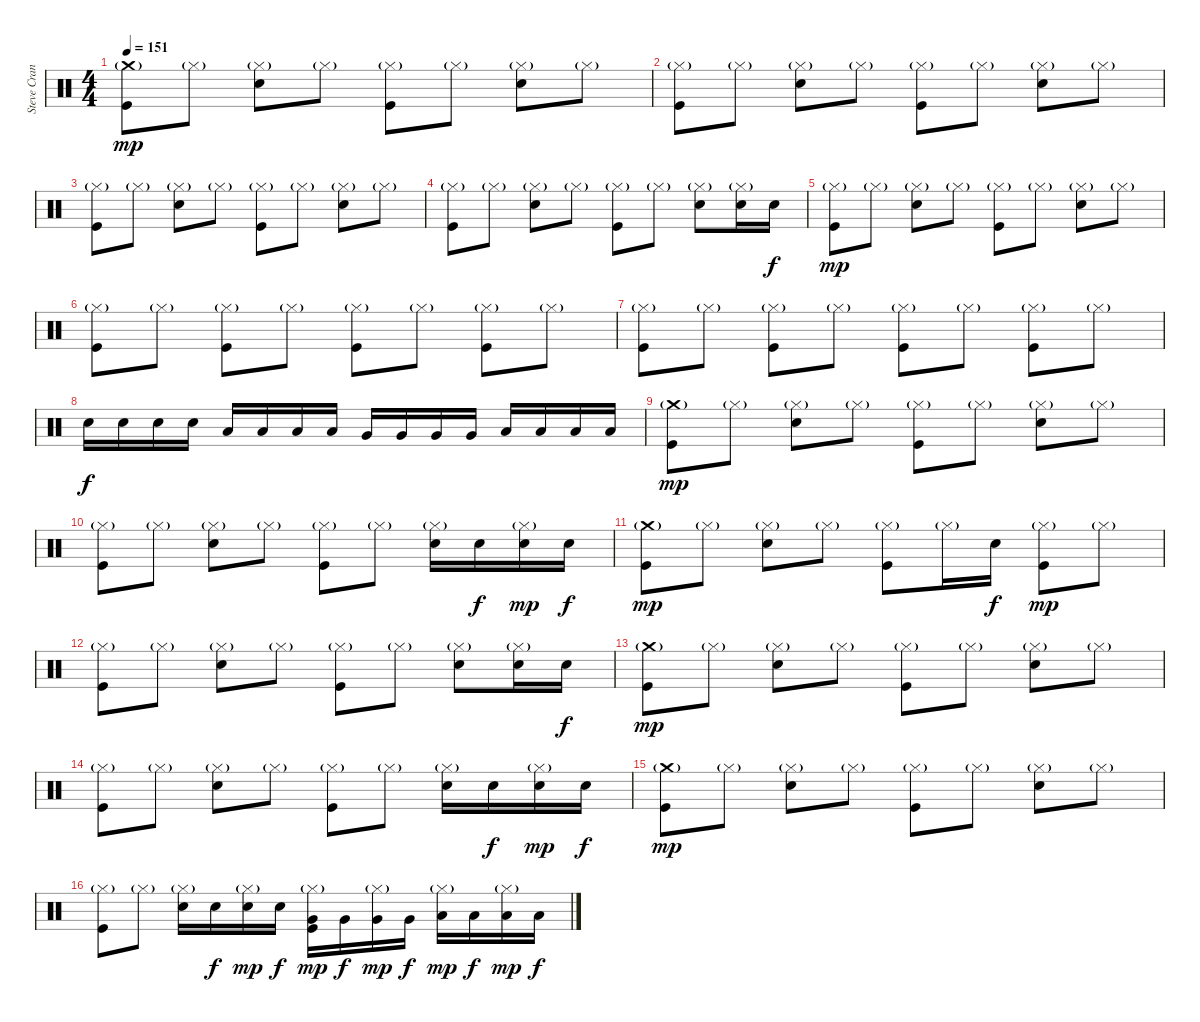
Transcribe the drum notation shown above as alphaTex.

\track ("Steve Crane" "Steve Cran") {instrument percussion}
\staff {score}
\articulation defaults
\ts (4 4)
\tempo 151
\clef neutral
\ks c
("Crash medium (hit)"{g} "Kick (hit)").8{dy mp} "Hi-Hat (closed)"{g}.8 ("Hi-Hat (closed)"{g} "Snare (hit) 2").8 "Hi-Hat (closed)"{g}.8 ("Hi-Hat (closed)"{g} "Kick (hit)").8 "Hi-Hat (closed)"{g}.8 ("Hi-Hat (closed)"{g} "Snare (hit) 2").8 "Hi-Hat (closed)"{g}.8 |
("Hi-Hat (closed)"{g} "Kick (hit)").8 "Hi-Hat (closed)"{g}.8 ("Hi-Hat (closed)"{g} "Snare (hit) 2").8 "Hi-Hat (closed)"{g}.8 ("Hi-Hat (closed)"{g} "Kick (hit)").8 "Hi-Hat (closed)"{g}.8 ("Hi-Hat (closed)"{g} "Snare (hit) 2").8 "Hi-Hat (closed)"{g}.8 |
("Hi-Hat (closed)"{g} "Kick (hit)").8 "Hi-Hat (closed)"{g}.8 ("Hi-Hat (closed)"{g} "Snare (hit) 2").8 "Hi-Hat (closed)"{g}.8 ("Hi-Hat (closed)"{g} "Kick (hit)").8 "Hi-Hat (closed)"{g}.8 ("Hi-Hat (closed)"{g} "Snare (hit) 2").8 "Hi-Hat (closed)"{g}.8 |
("Hi-Hat (closed)"{g} "Kick (hit)").8 "Hi-Hat (closed)"{g}.8 ("Hi-Hat (closed)"{g} "Snare (hit) 2").8 "Hi-Hat (closed)"{g}.8 ("Hi-Hat (closed)"{g} "Kick (hit)").8 "Hi-Hat (closed)"{g}.8 ("Hi-Hat (closed)"{g} "Snare (hit) 2").8 ("Hi-Hat (closed)"{g} "Snare (hit) 2").16 "Snare (hit) 2".16{dy f} |
("Hi-Hat (closed)"{g} "Kick (hit)").8{dy mp} "Hi-Hat (closed)"{g}.8 ("Hi-Hat (closed)"{g} "Snare (hit) 2").8 "Hi-Hat (closed)"{g}.8 ("Hi-Hat (closed)"{g} "Kick (hit)").8 "Hi-Hat (closed)"{g}.8 ("Hi-Hat (closed)"{g} "Snare (hit) 2").8 "Hi-Hat (closed)"{g}.8 |
("Hi-Hat (closed)"{g} "Kick (hit)").8 "Hi-Hat (closed)"{g}.8 ("Hi-Hat (closed)"{g} "Kick (hit)").8 "Hi-Hat (closed)"{g}.8 ("Hi-Hat (closed)"{g} "Kick (hit)").8 "Hi-Hat (closed)"{g}.8 ("Hi-Hat (closed)"{g} "Kick (hit)").8 "Hi-Hat (closed)"{g}.8 |
("Hi-Hat (closed)"{g} "Kick (hit)").8 "Hi-Hat (closed)"{g}.8 ("Hi-Hat (closed)"{g} "Kick (hit)").8 "Hi-Hat (closed)"{g}.8 ("Hi-Hat (closed)"{g} "Kick (hit)").8 "Hi-Hat (closed)"{g}.8 ("Hi-Hat (closed)"{g} "Kick (hit)").8 "Hi-Hat (closed)"{g}.8 |
"Snare (hit) 2".16{dy f} "Snare (hit) 2".16 "Snare (hit) 2".16 "Snare (hit) 2".16 "Low Tom (hit)".16 "Low Tom (hit)".16 "Low Tom (hit)".16 "Low Tom (hit)".16 "Very Low Tom (hit)".16 "Very Low Tom (hit)".16 "Very Low Tom (hit)".16 "Very Low Tom (hit)".16 "Low Floor Tom (hit)".16 "Low Floor Tom (hit)".16 "Low Floor Tom (hit)".16 "Low Floor Tom (hit)".16 |
("Crash medium (hit)"{g} "Kick (hit)").8{dy mp} "Hi-Hat (closed)"{g}.8 ("Hi-Hat (closed)"{g} "Snare (hit) 2").8 "Hi-Hat (closed)"{g}.8 ("Hi-Hat (closed)"{g} "Kick (hit)").8 "Hi-Hat (closed)"{g}.8 ("Hi-Hat (closed)"{g} "Snare (hit) 2").8 "Hi-Hat (closed)"{g}.8 |
("Hi-Hat (closed)"{g} "Kick (hit)").8 "Hi-Hat (closed)"{g}.8 ("Hi-Hat (closed)"{g} "Snare (hit) 2").8 "Hi-Hat (closed)"{g}.8 ("Hi-Hat (closed)"{g} "Kick (hit)").8 "Hi-Hat (closed)"{g}.8 ("Hi-Hat (closed)"{g} "Snare (hit) 2").16 "Snare (hit) 2".16{dy f} ("Hi-Hat (closed)"{g} "Snare (hit) 2").16{dy mp} "Snare (hit) 2".16{dy f} |
("Crash medium (hit)"{g} "Kick (hit)").8{dy mp} "Hi-Hat (closed)"{g}.8 ("Hi-Hat (closed)"{g} "Snare (hit) 2").8 "Hi-Hat (closed)"{g}.8 ("Hi-Hat (closed)"{g} "Kick (hit)").8 "Hi-Hat (closed)"{g}.16 "Snare (hit) 2".16{dy f} ("Hi-Hat (closed)"{g} "Kick (hit)").8{dy mp} "Hi-Hat (closed)"{g}.8 |
("Hi-Hat (closed)"{g} "Kick (hit)").8 "Hi-Hat (closed)"{g}.8 ("Hi-Hat (closed)"{g} "Snare (hit) 2").8 "Hi-Hat (closed)"{g}.8 ("Hi-Hat (closed)"{g} "Kick (hit)").8 "Hi-Hat (closed)"{g}.8 ("Hi-Hat (closed)"{g} "Snare (hit) 2").8 ("Hi-Hat (closed)"{g} "Snare (hit) 2").16 "Snare (hit) 2".16{dy f} |
("Crash medium (hit)"{g} "Kick (hit)").8{dy mp} "Hi-Hat (closed)"{g}.8 ("Hi-Hat (closed)"{g} "Snare (hit) 2").8 "Hi-Hat (closed)"{g}.8 ("Hi-Hat (closed)"{g} "Kick (hit)").8 "Hi-Hat (closed)"{g}.8 ("Hi-Hat (closed)"{g} "Snare (hit) 2").8 "Hi-Hat (closed)"{g}.8 |
("Hi-Hat (closed)"{g} "Kick (hit)").8 "Hi-Hat (closed)"{g}.8 ("Hi-Hat (closed)"{g} "Snare (hit) 2").8 "Hi-Hat (closed)"{g}.8 ("Hi-Hat (closed)"{g} "Kick (hit)").8 "Hi-Hat (closed)"{g}.8 ("Hi-Hat (closed)"{g} "Snare (hit) 2").16 "Snare (hit) 2".16{dy f} ("Hi-Hat (closed)"{g} "Snare (hit) 2").16{dy mp} "Snare (hit) 2".16{dy f} |
("Crash medium (hit)"{g} "Kick (hit)").8{dy mp} "Hi-Hat (closed)"{g}.8 ("Hi-Hat (closed)"{g} "Snare (hit) 2").8 "Hi-Hat (closed)"{g}.8 ("Hi-Hat (closed)"{g} "Kick (hit)").8 "Hi-Hat (closed)"{g}.8 ("Hi-Hat (closed)"{g} "Snare (hit) 2").8 "Hi-Hat (closed)"{g}.8 |
("Hi-Hat (closed)"{g} "Kick (hit)").8 "Hi-Hat (closed)"{g}.8 ("Hi-Hat (closed)"{g} "Snare (hit) 2").16 "Snare (hit) 2".16{dy f} ("Hi-Hat (closed)"{g} "Snare (hit) 2").16{dy mp} "Snare (hit) 2".16{dy f} ("Hi-Hat (closed)"{g} "Very Low Tom (hit)" "Kick (hit)").16{dy mp} "Very Low Tom (hit)".16{dy f} ("Hi-Hat (closed)"{g} "Very Low Tom (hit)").16{dy mp} "Very Low Tom (hit)".16{dy f} ("Hi-Hat (closed)"{g} "Low Floor Tom (hit)").16{dy mp} "Low Floor Tom (hit)".16{dy f} ("Hi-Hat (closed)"{g} "Low Floor Tom (hit)").16{dy mp} "Low Floor Tom (hit)".16{dy f}
